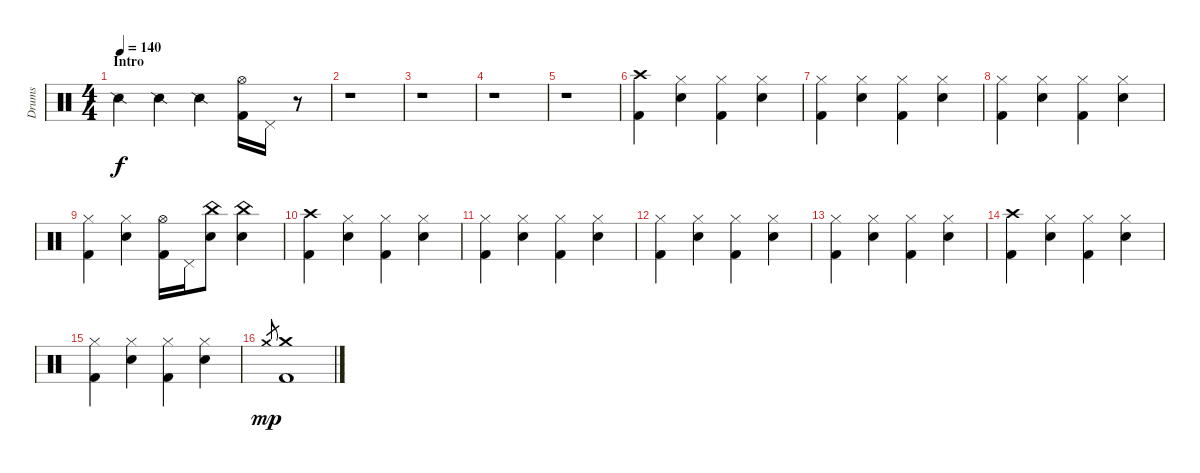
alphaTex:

\track ("Drums" "Drums") {instrument percussion}
\staff {score}
\articulation defaults
\ts (4 4)
\section ("" "Intro")
\tempo 140
\clef neutral
\ks c "Snare (side stick) 2".4{dy f} "Snare (side stick) 2".4 "Snare (side stick) 2".4
("Hi-Hat (open)" "Kick (hit) 2").16 "Pedal Hi-Hat (hit)".16 r.8 |
r.1 |
r.1 |
r.1 |
r.1 |
("Crash high (hit)" "Kick (hit) 2").4 ("Hi-Hat (closed)" "Electric Snare (hit)").4 ("Hi-Hat (closed)" "Kick (hit) 2").4 ("Hi-Hat (closed)" "Electric Snare (hit)").4 |
("Hi-Hat (closed)" "Kick (hit) 2").4 ("Hi-Hat (closed)" "Electric Snare (hit)").4 ("Hi-Hat (closed)" "Kick (hit) 2").4 ("Hi-Hat (closed)" "Electric Snare (hit)").4 |
("Hi-Hat (closed)" "Kick (hit) 2").4 ("Hi-Hat (closed)" "Electric Snare (hit)").4 ("Hi-Hat (closed)" "Kick (hit) 2").4 ("Hi-Hat (closed)" "Electric Snare (hit)").4 |
("Hi-Hat (closed)" "Kick (hit) 2").4 ("Hi-Hat (closed)" "Electric Snare (hit)").4 ("Hi-Hat (open)" "Kick (hit) 2").16 "Pedal Hi-Hat (hit)".16 ("China (hit)" "Electric Snare (hit)").8 ("China (hit)" "Electric Snare (hit)").4 |
("Crash high (hit)" "Kick (hit) 2").4 ("Hi-Hat (closed)" "Electric Snare (hit)").4 ("Hi-Hat (closed)" "Kick (hit) 2").4 ("Hi-Hat (closed)" "Electric Snare (hit)").4 |
("Hi-Hat (closed)" "Kick (hit) 2").4 ("Hi-Hat (closed)" "Electric Snare (hit)").4 ("Hi-Hat (closed)" "Kick (hit) 2").4 ("Hi-Hat (closed)" "Electric Snare (hit)").4 |
("Hi-Hat (closed)" "Kick (hit) 2").4 ("Hi-Hat (closed)" "Electric Snare (hit)").4 ("Hi-Hat (closed)" "Kick (hit) 2").4 ("Hi-Hat (closed)" "Electric Snare (hit)").4 |
("Hi-Hat (closed)" "Kick (hit) 2").4 ("Hi-Hat (closed)" "Electric Snare (hit)").4 ("Hi-Hat (closed)" "Kick (hit) 2").4 ("Hi-Hat (closed)" "Electric Snare (hit)").4 |
("Crash high (hit)" "Kick (hit) 2").4 ("Hi-Hat (closed)" "Electric Snare (hit)").4 ("Hi-Hat (closed)" "Kick (hit) 2").4 ("Hi-Hat (closed)" "Electric Snare (hit)").4 |
("Hi-Hat (closed)" "Kick (hit) 2").4 ("Hi-Hat (closed)" "Electric Snare (hit)").4 ("Hi-Hat (closed)" "Kick (hit) 2").4 ("Hi-Hat (closed)" "Electric Snare (hit)").4 |
"Crash medium (hit)".8{gr dy mp} ("Crash medium (hit)" "Kick (hit) 2").1
